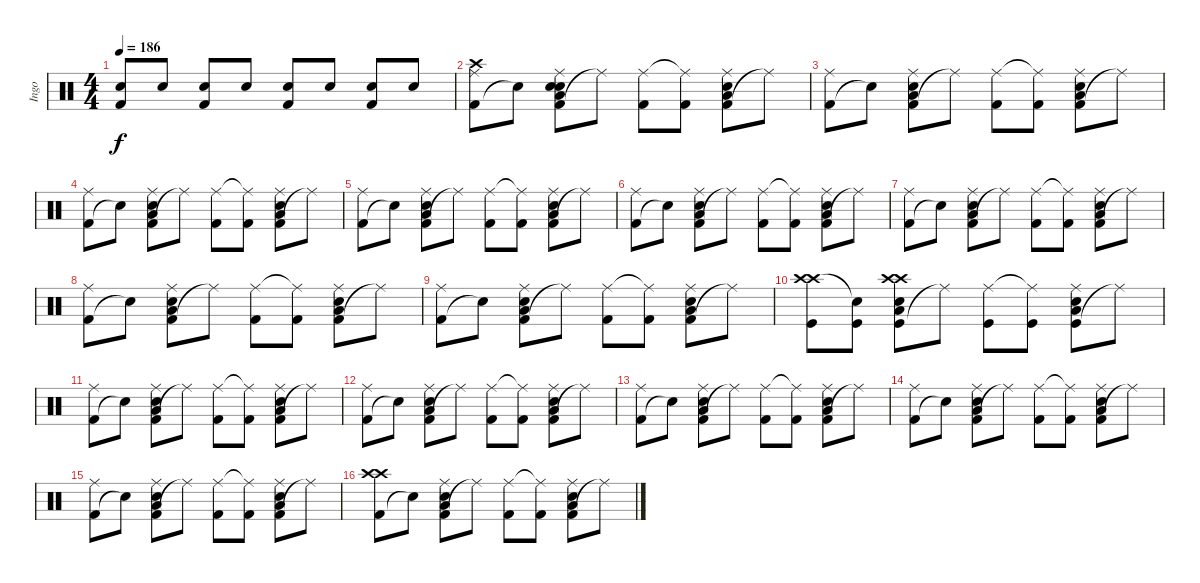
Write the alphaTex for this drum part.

\track ("Ingo" "Ingo") {instrument percussion}
\staff {score}
\articulation defaults
\ts (4 4)
\tempo 186
\clef neutral
\ks c
("Kick (hit) 2" "Snare (hit) 2").8{dy f} "Snare (hit) 2".8 ("Kick (hit) 2" "Snare (hit) 2").8 "Snare (hit) 2".8 ("Kick (hit) 2" "Snare (hit) 2").8 "Snare (hit) 2".8 ("Kick (hit) 2" "Snare (hit) 2").8 "Snare (hit) 2".8 |
("Kick (hit) 2" "Crash high (hit)" "Ride (middle)").8 "Snare (hit)"{t}.8 ("Kick (hit) 2" "Low Tom (hit)" "Snare (hit) 2" "Snare (hit)" "Ride (middle)").8 "Ride (middle)"{t}.8 ("Kick (hit) 2" "Ride (middle)").8 ("Kick (hit) 2" "Ride (middle)"{t}).8 ("Kick (hit) 2" "Low Tom (hit)" "Snare (hit) 2" "Ride (middle)").8 "Ride (middle)"{t}.8 |
("Kick (hit) 2" "Ride (middle)").8 "Snare (hit)"{t}.8 ("Kick (hit) 2" "Low Tom (hit)" "Snare (hit) 2" "Ride (middle)").8 "Ride (middle)"{t}.8 ("Kick (hit) 2" "Ride (middle)").8 ("Kick (hit) 2" "Ride (middle)"{t}).8 ("Kick (hit) 2" "Low Tom (hit)" "Snare (hit) 2" "Ride (middle)").8 "Ride (middle)"{t}.8 |
("Kick (hit) 2" "Ride (middle)").8 "Snare (hit)"{t}.8 ("Kick (hit) 2" "Low Tom (hit)" "Snare (hit) 2" "Ride (middle)").8 "Ride (middle)"{t}.8 ("Kick (hit) 2" "Ride (middle)").8 ("Kick (hit) 2" "Ride (middle)"{t}).8 ("Kick (hit) 2" "Low Tom (hit)" "Snare (hit) 2" "Ride (middle)").8 "Ride (middle)"{t}.8 |
("Kick (hit) 2" "Ride (middle)").8 "Snare (hit)"{t}.8 ("Kick (hit) 2" "Low Tom (hit)" "Snare (hit) 2" "Ride (middle)").8 "Ride (middle)"{t}.8 ("Kick (hit) 2" "Ride (middle)").8 ("Kick (hit) 2" "Ride (middle)"{t}).8 ("Kick (hit) 2" "Low Tom (hit)" "Snare (hit) 2" "Ride (middle)").8 "Ride (middle)"{t}.8 |
("Kick (hit) 2" "Ride (middle)").8 "Snare (hit)"{t}.8 ("Kick (hit) 2" "Low Tom (hit)" "Snare (hit) 2" "Ride (middle)").8 "Ride (middle)"{t}.8 ("Kick (hit) 2" "Ride (middle)").8 ("Kick (hit) 2" "Ride (middle)"{t}).8 ("Kick (hit) 2" "Low Tom (hit)" "Snare (hit) 2" "Ride (middle)").8 "Ride (middle)"{t}.8 |
("Kick (hit) 2" "Ride (middle)").8 "Snare (hit)"{t}.8 ("Kick (hit) 2" "Low Tom (hit)" "Snare (hit) 2" "Ride (middle)").8 "Ride (middle)"{t}.8 ("Kick (hit) 2" "Ride (middle)").8 ("Kick (hit) 2" "Ride (middle)"{t}).8 ("Kick (hit) 2" "Low Tom (hit)" "Snare (hit) 2" "Ride (middle)").8 "Ride (middle)"{t}.8 |
("Kick (hit) 2" "Ride (middle)").8 "Snare (hit)"{t}.8 ("Kick (hit) 2" "Low Tom (hit)" "Snare (hit) 2" "Ride (middle)").8 "Ride (middle)"{t}.8 ("Kick (hit) 2" "Ride (middle)").8 ("Kick (hit) 2" "Ride (middle)"{t}).8 ("Kick (hit) 2" "Low Tom (hit)" "Snare (hit) 2" "Ride (middle)").8 "Ride (middle)"{t}.8 |
("Kick (hit) 2" "Ride (middle)").8 "Snare (hit)"{t}.8 ("Kick (hit) 2" "Low Tom (hit)" "Snare (hit) 2" "Ride (middle)").8 "Ride (middle)"{t}.8 ("Kick (hit) 2" "Ride (middle)").8 ("Kick (hit) 2" "Ride (middle)"{t}).8 ("Kick (hit) 2" "Low Tom (hit)" "Snare (hit) 2" "Ride (middle)").8 "Ride (middle)"{t}.8 |
("Kick (hit)" "Crash high (hit)" "Crash high (hit)").8 ("Kick (hit)" "Snare (hit)"{t}).8 ("Kick (hit)" "Low Tom (hit)" "Snare (hit) 2" "Crash high (hit)" "Crash high (hit)").8 "Ride (middle)"{t}.8 ("Kick (hit)" "Ride (middle)").8 ("Kick (hit)" "Ride (middle)"{t}).8 ("Kick (hit)" "Low Tom (hit)" "Snare (hit) 2" "Ride (middle)").8 "Ride (middle)"{t}.8 |
("Kick (hit) 2" "Ride (middle)").8 "Snare (hit)"{t}.8 ("Kick (hit) 2" "Low Tom (hit)" "Snare (hit) 2" "Ride (middle)").8 "Ride (middle)"{t}.8 ("Kick (hit) 2" "Ride (middle)").8 ("Kick (hit) 2" "Ride (middle)"{t}).8 ("Kick (hit) 2" "Low Tom (hit)" "Snare (hit) 2" "Ride (middle)").8 "Ride (middle)"{t}.8 |
("Kick (hit) 2" "Ride (middle)").8 "Snare (hit)"{t}.8 ("Kick (hit) 2" "Low Tom (hit)" "Snare (hit) 2" "Ride (middle)").8 "Ride (middle)"{t}.8 ("Kick (hit) 2" "Ride (middle)").8 ("Kick (hit) 2" "Ride (middle)"{t}).8 ("Kick (hit) 2" "Low Tom (hit)" "Snare (hit) 2" "Ride (middle)").8 "Ride (middle)"{t}.8 |
("Kick (hit) 2" "Ride (middle)").8 "Snare (hit)"{t}.8 ("Kick (hit) 2" "Low Tom (hit)" "Snare (hit) 2" "Ride (middle)").8 "Ride (middle)"{t}.8 ("Kick (hit) 2" "Ride (middle)").8 ("Kick (hit) 2" "Ride (middle)"{t}).8 ("Kick (hit) 2" "Low Tom (hit)" "Snare (hit) 2" "Ride (middle)").8 "Ride (middle)"{t}.8 |
("Kick (hit) 2" "Ride (middle)").8 "Snare (hit)"{t}.8 ("Kick (hit) 2" "Low Tom (hit)" "Snare (hit) 2" "Ride (middle)").8 "Ride (middle)"{t}.8 ("Kick (hit) 2" "Ride (middle)").8 ("Kick (hit) 2" "Ride (middle)"{t}).8 ("Kick (hit) 2" "Low Tom (hit)" "Snare (hit) 2" "Ride (middle)").8 "Ride (middle)"{t}.8 |
("Kick (hit) 2" "Ride (middle)").8 "Snare (hit)"{t}.8 ("Kick (hit) 2" "Low Tom (hit)" "Snare (hit) 2" "Ride (middle)").8 "Ride (middle)"{t}.8 ("Kick (hit) 2" "Ride (middle)").8 ("Kick (hit) 2" "Ride (middle)"{t}).8 ("Kick (hit) 2" "Low Tom (hit)" "Snare (hit) 2" "Ride (middle)").8 "Ride (middle)"{t}.8 |
("Kick (hit) 2" "Crash high (hit)" "Crash high (hit)").8 "Snare (hit)"{t}.8 ("Kick (hit) 2" "Low Tom (hit)" "Snare (hit) 2" "Ride (middle)").8 "Ride (middle)"{t}.8 ("Kick (hit) 2" "Ride (middle)").8 ("Kick (hit) 2" "Ride (middle)"{t}).8 ("Kick (hit) 2" "Low Tom (hit)" "Snare (hit) 2" "Ride (middle)").8 "Ride (middle)"{t}.8
